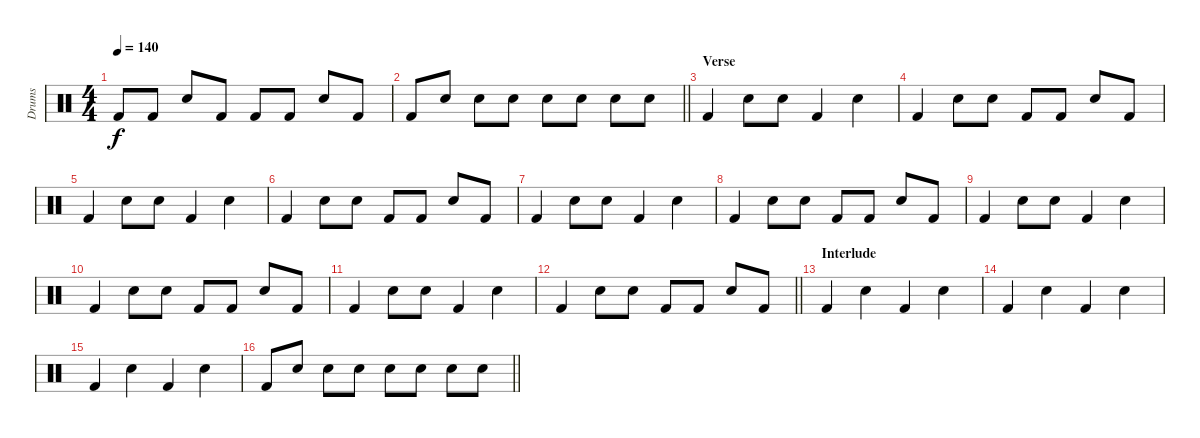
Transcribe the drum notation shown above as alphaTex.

\track ("Drums" "Drums") {instrument percussion}
\staff {score}
\articulation defaults
\ts (4 4)
\tempo 140
\clef neutral
\ks c "Kick (hit) 2".8{dy f} "Kick (hit) 2".8 "Snare (hit) 2".8 "Kick (hit) 2".8 "Kick (hit) 2".8 "Kick (hit) 2".8 "Snare (hit) 2".8 "Kick (hit) 2".8
|
\barLineRight lightlight "Kick (hit) 2".8 "Snare (hit) 2".8 "Snare (hit) 2".8 "Snare (hit) 2".8 "Snare (hit) 2".8 "Snare (hit) 2".8 "Snare (hit) 2".8 "Snare (hit) 2".8
|
\section ("" "Verse")
"Kick (hit) 2".4 "Snare (hit) 2".8 "Snare (hit) 2".8 "Kick (hit) 2".4 "Snare (hit) 2".4 |
"Kick (hit) 2".4 "Snare (hit) 2".8 "Snare (hit) 2".8 "Kick (hit) 2".8 "Kick (hit) 2".8 "Snare (hit) 2".8 "Kick (hit) 2".8 |
"Kick (hit) 2".4 "Snare (hit) 2".8 "Snare (hit) 2".8 "Kick (hit) 2".4 "Snare (hit) 2".4 |
"Kick (hit) 2".4 "Snare (hit) 2".8 "Snare (hit) 2".8 "Kick (hit) 2".8 "Kick (hit) 2".8 "Snare (hit) 2".8 "Kick (hit) 2".8 |
"Kick (hit) 2".4 "Snare (hit) 2".8 "Snare (hit) 2".8 "Kick (hit) 2".4 "Snare (hit) 2".4 |
"Kick (hit) 2".4 "Snare (hit) 2".8 "Snare (hit) 2".8 "Kick (hit) 2".8 "Kick (hit) 2".8 "Snare (hit) 2".8 "Kick (hit) 2".8 |
"Kick (hit) 2".4 "Snare (hit) 2".8 "Snare (hit) 2".8 "Kick (hit) 2".4 "Snare (hit) 2".4 |
"Kick (hit) 2".4 "Snare (hit) 2".8 "Snare (hit) 2".8 "Kick (hit) 2".8 "Kick (hit) 2".8 "Snare (hit) 2".8 "Kick (hit) 2".8 |
"Kick (hit) 2".4 "Snare (hit) 2".8 "Snare (hit) 2".8 "Kick (hit) 2".4 "Snare (hit) 2".4 |
\barLineRight lightlight "Kick (hit) 2".4 "Snare (hit) 2".8 "Snare (hit) 2".8 "Kick (hit) 2".8 "Kick (hit) 2".8 "Snare (hit) 2".8 "Kick (hit) 2".8
|
\section ("" "Interlude")
"Kick (hit) 2".4 "Snare (hit) 2".4 "Kick (hit) 2".4 "Snare (hit) 2".4 |
"Kick (hit) 2".4 "Snare (hit) 2".4 "Kick (hit) 2".4 "Snare (hit) 2".4 |
"Kick (hit) 2".4 "Snare (hit) 2".4 "Kick (hit) 2".4 "Snare (hit) 2".4 |
\barLineRight lightlight "Kick (hit) 2".8 "Snare (hit) 2".8 "Snare (hit) 2".8 "Snare (hit) 2".8 "Snare (hit) 2".8 "Snare (hit) 2".8 "Snare (hit) 2".8 "Snare (hit) 2".8
